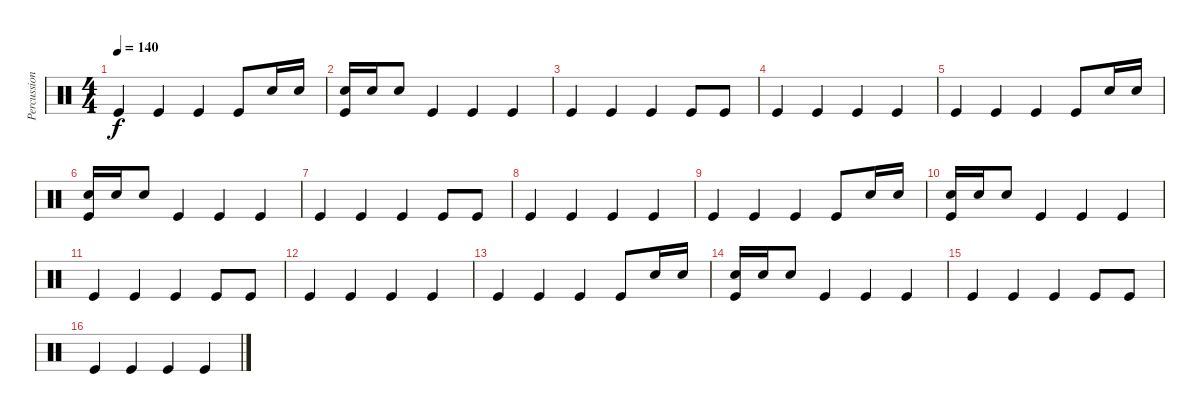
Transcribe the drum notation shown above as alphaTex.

\track ("Percussion" "Percussion") {instrument percussion}
\staff {score}
\articulation defaults
\ts (4 4)
\tempo 140
\clef neutral
\ks c "Kick (hit)".4{dy f} "Kick (hit)".4 "Kick (hit)".4 "Kick (hit)".8 "Snare (hit) 2".16 "Snare (hit) 2".16
|
("Snare (hit) 2" "Kick (hit)").16 "Snare (hit) 2".16 "Snare (hit) 2".8 "Kick (hit)".4 "Kick (hit)".4 "Kick (hit)".4 |
"Kick (hit)".4 "Kick (hit)".4 "Kick (hit)".4 "Kick (hit)".8 "Kick (hit)".8 |
"Kick (hit)".4 "Kick (hit)".4 "Kick (hit)".4 "Kick (hit)".4 |
"Kick (hit)".4 "Kick (hit)".4 "Kick (hit)".4 "Kick (hit)".8 "Snare (hit) 2".16 "Snare (hit) 2".16 |
("Snare (hit) 2" "Kick (hit)").16 "Snare (hit) 2".16 "Snare (hit) 2".8 "Kick (hit)".4 "Kick (hit)".4 "Kick (hit)".4 |
"Kick (hit)".4 "Kick (hit)".4 "Kick (hit)".4 "Kick (hit)".8 "Kick (hit)".8 |
"Kick (hit)".4 "Kick (hit)".4 "Kick (hit)".4 "Kick (hit)".4 |
"Kick (hit)".4 "Kick (hit)".4 "Kick (hit)".4 "Kick (hit)".8 "Snare (hit) 2".16 "Snare (hit) 2".16 |
("Snare (hit) 2" "Kick (hit)").16 "Snare (hit) 2".16 "Snare (hit) 2".8 "Kick (hit)".4 "Kick (hit)".4 "Kick (hit)".4 |
"Kick (hit)".4 "Kick (hit)".4 "Kick (hit)".4 "Kick (hit)".8 "Kick (hit)".8 |
"Kick (hit)".4 "Kick (hit)".4 "Kick (hit)".4 "Kick (hit)".4 |
"Kick (hit)".4 "Kick (hit)".4 "Kick (hit)".4 "Kick (hit)".8 "Snare (hit) 2".16 "Snare (hit) 2".16 |
("Snare (hit) 2" "Kick (hit)").16 "Snare (hit) 2".16 "Snare (hit) 2".8 "Kick (hit)".4 "Kick (hit)".4 "Kick (hit)".4 |
"Kick (hit)".4 "Kick (hit)".4 "Kick (hit)".4 "Kick (hit)".8 "Kick (hit)".8 |
"Kick (hit)".4 "Kick (hit)".4 "Kick (hit)".4 "Kick (hit)".4
